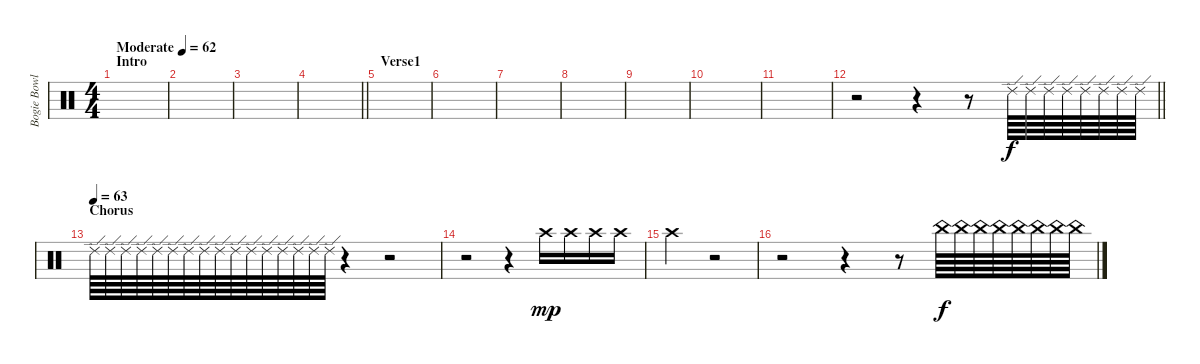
\track ("Bogie Bowles - Drums" "Bogie Bowl") {instrument percussion}
\staff {score}
\articulation defaults
\ts (4 4)
\section ("" "Intro")
\tempo (62 "Moderate")
\clef neutral
\ks c
|
|
|
\barLineRight lightlight
|
\section ("" "Verse1")
|
|
|
|
|
|
|
\barLineRight lightlight
r.2 r.4{volume 0} r.8{volume 13} "Ride (edge) 2".64 "Ride (edge) 2".64 "Ride (edge) 2".64 "Ride (edge) 2".64 "Ride (edge) 2".64 "Ride (edge) 2".64 "Ride (edge) 2".64 "Ride (edge) 2".64 |
\section ("" "Chorus")
\tempo (63)
"Ride (edge) 2".64 "Ride (edge) 2".64 "Ride (edge) 2".64 "Ride (edge) 2".64 "Ride (edge) 2".64 "Ride (edge) 2".64 "Ride (edge) 2".64 "Ride (edge) 2".64 "Ride (edge) 2".64{volume 0} "Ride (edge) 2".64 "Ride (edge) 2".64 "Ride (edge) 2".64 "Ride (edge) 2".64 "Ride (edge) 2".64 "Ride (edge) 2".64 "Ride (edge) 2".64 r.4 r.2 |
r.2{volume 0} r.4{volume 13} "Crash high (hit)".16{dy mp} "Crash high (hit)".16 "Crash high (hit)".16 "Crash high (hit)".16 |
"Crash high (hit)".2 r.2 |
r.2 r.4{volume 0} r.8{volume 13} "China (hit)".64{dy f} "China (hit)".64 "China (hit)".64 "China (hit)".64 "China (hit)".64 "China (hit)".64 "China (hit)".64 "China (hit)".64
